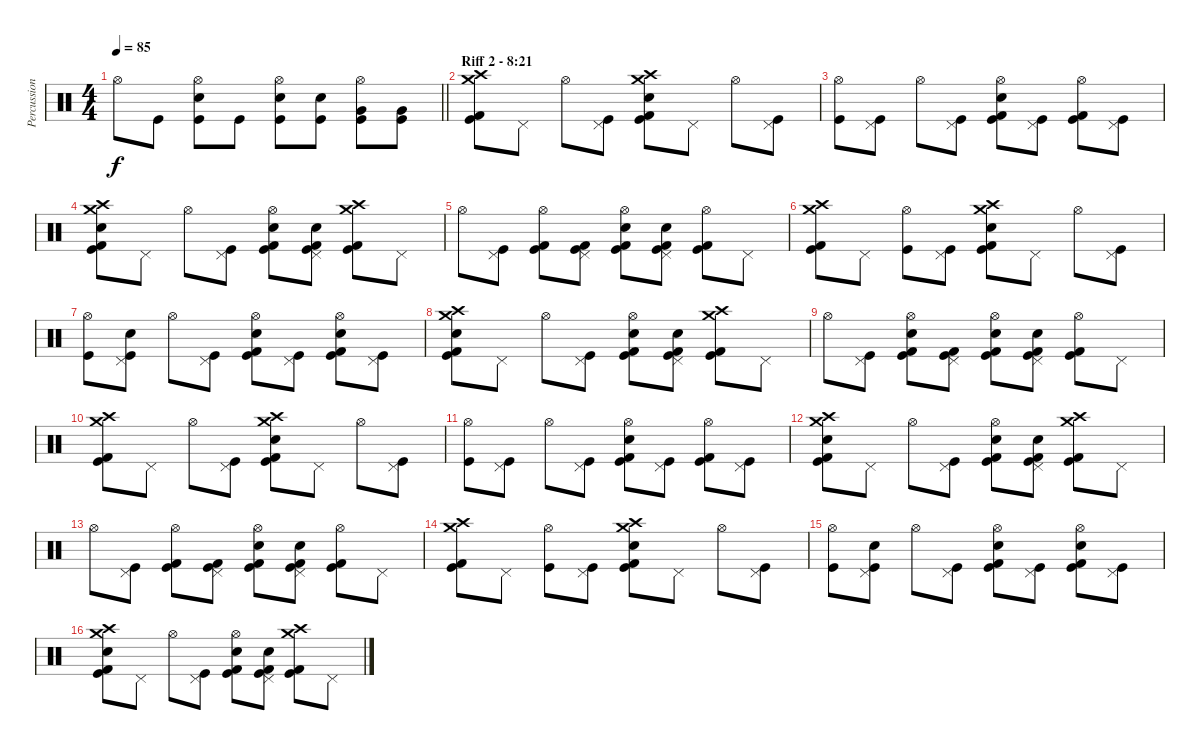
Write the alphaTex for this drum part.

\track ("Percussion" "Percussion") {instrument percussion}
\staff {score}
\articulation defaults
\ts (4 4)
\tempo 85
\clef neutral
\barLineRight lightlight
\ks c "Hi-Hat (open)".8{dy f} "Kick (hit)".8
("Kick (hit)" "Snare (hit) 2" "Hi-Hat (open)").8 "Kick (hit)".8 ("Kick (hit)" "Snare (hit) 2" "Hi-Hat (open)").8 ("Kick (hit)" "Snare (hit) 2").8 ("Kick (hit)" "Very Low Tom (hit)" "Hi-Hat (open)").8 ("Kick (hit)" "Very Low Tom (hit)").8 |
\section ("" "Riff 2 - 8:21")
("Kick (hit)" "Kick (hit) 2" "Crash high (hit)" "Crash medium (hit)").8 "Pedal Hi-Hat (hit)".8 "Hi-Hat (open)".8 ("Kick (hit)" "Pedal Hi-Hat (hit)").8 ("Kick (hit)" "Kick (hit) 2" "Snare (hit) 2" "Crash high (hit)" "Crash medium (hit)").8 "Pedal Hi-Hat (hit)".8 "Hi-Hat (open)".8 ("Kick (hit)" "Pedal Hi-Hat (hit)").8 |
("Kick (hit)" "Hi-Hat (open)").8 ("Kick (hit)" "Pedal Hi-Hat (hit)").8 "Hi-Hat (open)".8 ("Kick (hit)" "Pedal Hi-Hat (hit)").8 ("Kick (hit)" "Kick (hit) 2" "Snare (hit) 2" "Hi-Hat (open)").8 ("Kick (hit)" "Pedal Hi-Hat (hit)").8 ("Kick (hit)" "Kick (hit) 2" "Hi-Hat (open)").8 ("Kick (hit)" "Pedal Hi-Hat (hit)").8 |
("Kick (hit)" "Kick (hit) 2" "Snare (hit) 2" "Crash high (hit)" "Crash medium (hit)").8 "Pedal Hi-Hat (hit)".8 "Hi-Hat (open)".8 ("Kick (hit)" "Pedal Hi-Hat (hit)").8 ("Kick (hit)" "Kick (hit) 2" "Snare (hit) 2" "Hi-Hat (open)").8 ("Kick (hit)" "Kick (hit) 2" "Snare (hit) 2" "Pedal Hi-Hat (hit)").8 ("Kick (hit)" "Kick (hit) 2" "Crash high (hit)" "Crash medium (hit)").8 "Pedal Hi-Hat (hit)".8 |
"Hi-Hat (open)".8 ("Kick (hit)" "Pedal Hi-Hat (hit)").8 ("Kick (hit)" "Kick (hit) 2" "Hi-Hat (open)").8 ("Kick (hit)" "Kick (hit) 2" "Pedal Hi-Hat (hit)").8 ("Kick (hit)" "Kick (hit) 2" "Snare (hit) 2" "Hi-Hat (open)").8 ("Kick (hit)" "Kick (hit) 2" "Snare (hit) 2" "Pedal Hi-Hat (hit)").8 ("Kick (hit)" "Kick (hit) 2" "Hi-Hat (open)").8 "Pedal Hi-Hat (hit)".8 |
("Kick (hit)" "Kick (hit) 2" "Crash high (hit)" "Crash medium (hit)").8 "Pedal Hi-Hat (hit)".8 ("Kick (hit)" "Hi-Hat (open)").8 ("Kick (hit)" "Pedal Hi-Hat (hit)").8 ("Kick (hit)" "Kick (hit) 2" "Snare (hit) 2" "Crash high (hit)" "Crash medium (hit)").8 "Pedal Hi-Hat (hit)".8 "Hi-Hat (open)".8 ("Kick (hit)" "Pedal Hi-Hat (hit)").8 |
("Kick (hit)" "Hi-Hat (open)").8 ("Kick (hit)" "Snare (hit) 2" "Pedal Hi-Hat (hit)").8 "Hi-Hat (open)".8 ("Kick (hit)" "Pedal Hi-Hat (hit)").8 ("Kick (hit)" "Kick (hit) 2" "Snare (hit) 2" "Hi-Hat (open)").8 ("Kick (hit)" "Pedal Hi-Hat (hit)").8 ("Kick (hit)" "Kick (hit) 2" "Snare (hit) 2" "Hi-Hat (open)").8 ("Kick (hit)" "Pedal Hi-Hat (hit)").8 |
("Kick (hit)" "Kick (hit) 2" "Snare (hit) 2" "Crash high (hit)" "Crash medium (hit)").8 "Pedal Hi-Hat (hit)".8 "Hi-Hat (open)".8 ("Kick (hit)" "Pedal Hi-Hat (hit)").8 ("Kick (hit)" "Kick (hit) 2" "Snare (hit) 2" "Hi-Hat (open)").8 ("Kick (hit)" "Kick (hit) 2" "Snare (hit) 2" "Pedal Hi-Hat (hit)").8 ("Kick (hit)" "Kick (hit) 2" "Crash high (hit)" "Crash medium (hit)").8 "Pedal Hi-Hat (hit)".8 |
"Hi-Hat (open)".8 ("Kick (hit)" "Pedal Hi-Hat (hit)").8 ("Kick (hit)" "Kick (hit) 2" "Snare (hit) 2" "Hi-Hat (open)").8 ("Kick (hit)" "Kick (hit) 2" "Pedal Hi-Hat (hit)").8 ("Kick (hit)" "Kick (hit) 2" "Snare (hit) 2" "Hi-Hat (open)").8 ("Kick (hit)" "Kick (hit) 2" "Snare (hit) 2" "Pedal Hi-Hat (hit)").8 ("Kick (hit)" "Kick (hit) 2" "Hi-Hat (open)").8 "Pedal Hi-Hat (hit)".8 |
("Kick (hit)" "Kick (hit) 2" "Crash high (hit)" "Crash medium (hit)").8 "Pedal Hi-Hat (hit)".8 "Hi-Hat (open)".8 ("Kick (hit)" "Pedal Hi-Hat (hit)").8 ("Kick (hit)" "Kick (hit) 2" "Snare (hit) 2" "Crash high (hit)" "Crash medium (hit)").8 "Pedal Hi-Hat (hit)".8 "Hi-Hat (open)".8 ("Kick (hit)" "Pedal Hi-Hat (hit)").8 |
("Kick (hit)" "Hi-Hat (open)").8 ("Kick (hit)" "Pedal Hi-Hat (hit)").8 "Hi-Hat (open)".8 ("Kick (hit)" "Pedal Hi-Hat (hit)").8 ("Kick (hit)" "Kick (hit) 2" "Snare (hit) 2" "Hi-Hat (open)").8 ("Kick (hit)" "Pedal Hi-Hat (hit)").8 ("Kick (hit)" "Kick (hit) 2" "Hi-Hat (open)").8 ("Kick (hit)" "Pedal Hi-Hat (hit)").8 |
("Kick (hit)" "Kick (hit) 2" "Snare (hit) 2" "Crash high (hit)" "Crash medium (hit)").8 "Pedal Hi-Hat (hit)".8 "Hi-Hat (open)".8 ("Kick (hit)" "Pedal Hi-Hat (hit)").8 ("Kick (hit)" "Kick (hit) 2" "Snare (hit) 2" "Hi-Hat (open)").8 ("Kick (hit)" "Kick (hit) 2" "Snare (hit) 2" "Pedal Hi-Hat (hit)").8 ("Kick (hit)" "Kick (hit) 2" "Crash high (hit)" "Crash medium (hit)").8 "Pedal Hi-Hat (hit)".8 |
"Hi-Hat (open)".8 ("Kick (hit)" "Pedal Hi-Hat (hit)").8 ("Kick (hit)" "Kick (hit) 2" "Hi-Hat (open)").8 ("Kick (hit)" "Kick (hit) 2" "Pedal Hi-Hat (hit)").8 ("Kick (hit)" "Kick (hit) 2" "Snare (hit) 2" "Hi-Hat (open)").8 ("Kick (hit)" "Kick (hit) 2" "Snare (hit) 2" "Pedal Hi-Hat (hit)").8 ("Kick (hit)" "Kick (hit) 2" "Hi-Hat (open)").8 "Pedal Hi-Hat (hit)".8 |
("Kick (hit)" "Kick (hit) 2" "Crash high (hit)" "Crash medium (hit)").8 "Pedal Hi-Hat (hit)".8 ("Kick (hit)" "Hi-Hat (open)").8 ("Kick (hit)" "Pedal Hi-Hat (hit)").8 ("Kick (hit)" "Kick (hit) 2" "Snare (hit) 2" "Crash high (hit)" "Crash medium (hit)").8 "Pedal Hi-Hat (hit)".8 "Hi-Hat (open)".8 ("Kick (hit)" "Pedal Hi-Hat (hit)").8 |
("Kick (hit)" "Hi-Hat (open)").8 ("Kick (hit)" "Snare (hit) 2" "Pedal Hi-Hat (hit)").8 "Hi-Hat (open)".8 ("Kick (hit)" "Pedal Hi-Hat (hit)").8 ("Kick (hit)" "Kick (hit) 2" "Snare (hit) 2" "Hi-Hat (open)").8 ("Kick (hit)" "Pedal Hi-Hat (hit)").8 ("Kick (hit)" "Kick (hit) 2" "Snare (hit) 2" "Hi-Hat (open)").8 ("Kick (hit)" "Pedal Hi-Hat (hit)").8 |
("Kick (hit)" "Kick (hit) 2" "Snare (hit) 2" "Crash high (hit)" "Crash medium (hit)").8 "Pedal Hi-Hat (hit)".8 "Hi-Hat (open)".8 ("Kick (hit)" "Pedal Hi-Hat (hit)").8 ("Kick (hit)" "Kick (hit) 2" "Snare (hit) 2" "Hi-Hat (open)").8 ("Kick (hit)" "Kick (hit) 2" "Snare (hit) 2" "Pedal Hi-Hat (hit)").8 ("Kick (hit)" "Kick (hit) 2" "Crash high (hit)" "Crash medium (hit)").8 "Pedal Hi-Hat (hit)".8
